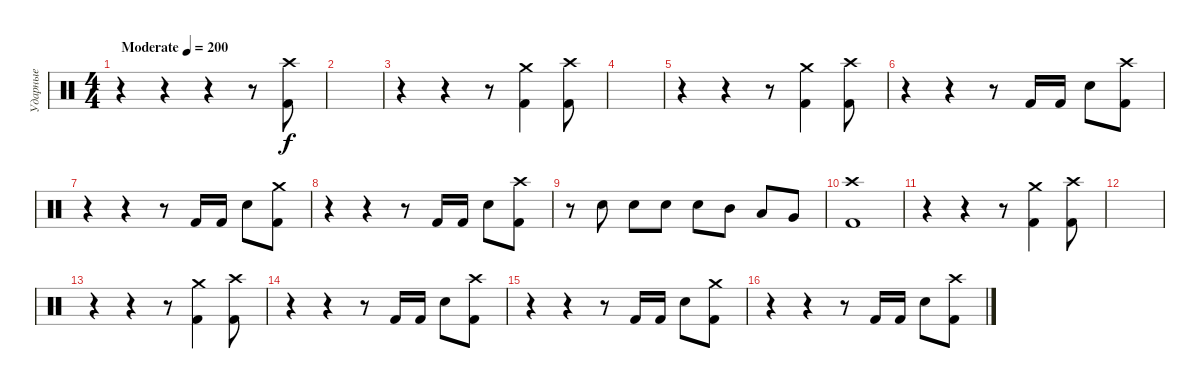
\track ("Ударные" "Ударные") {instrument percussion}
\staff {score}
\articulation defaults
\ts (4 4)
\tempo (200 "Moderate")
\clef neutral
\ks c
r.4{dy f} r.4 r.4 r.8 ("Crash high (hit)" "Kick (hit) 2").8 |
|
r.4 r.4 r.8 ("Crash medium (hit)" "Kick (hit) 2").4 ("Crash high (hit)" "Kick (hit) 2").8 |
|
r.4 r.4 r.8 ("Crash medium (hit)" "Kick (hit) 2").4 ("Crash high (hit)" "Kick (hit) 2").8 |
r.4 r.4 r.8 "Kick (hit) 2".16 "Kick (hit) 2".16 "Electric Snare (hit)".8 ("Crash high (hit)" "Kick (hit) 2").8 |
r.4 r.4 r.8 "Kick (hit) 2".16 "Kick (hit) 2".16 "Electric Snare (hit)".8 ("Crash medium (hit)" "Kick (hit) 2").8 |
r.4 r.4 r.8 "Kick (hit) 2".16 "Kick (hit) 2".16 "Electric Snare (hit)".8 ("Crash high (hit)" "Kick (hit) 2").8 |
r.8 "Electric Snare (hit)".8 "Electric Snare (hit)".8 "Electric Snare (hit)".8 "Electric Snare (hit)".8 "Mid Tom (hit)".8 "Low Tom (hit)".8 "Very Low Tom (hit)".8 |
("Crash high (hit)" "Kick (hit) 2").1 |
r.4 r.4 r.8 ("Crash medium (hit)" "Kick (hit) 2").4 ("Crash high (hit)" "Kick (hit) 2").8 |
|
r.4 r.4 r.8 ("Crash medium (hit)" "Kick (hit) 2").4 ("Crash high (hit)" "Kick (hit) 2").8 |
r.4 r.4 r.8 "Kick (hit) 2".16 "Kick (hit) 2".16 "Electric Snare (hit)".8 ("Crash high (hit)" "Kick (hit) 2").8 |
r.4 r.4 r.8 "Kick (hit) 2".16 "Kick (hit) 2".16 "Electric Snare (hit)".8 ("Crash medium (hit)" "Kick (hit) 2").8 |
r.4 r.4 r.8 "Kick (hit) 2".16 "Kick (hit) 2".16 "Electric Snare (hit)".8 ("Crash high (hit)" "Kick (hit) 2").8
